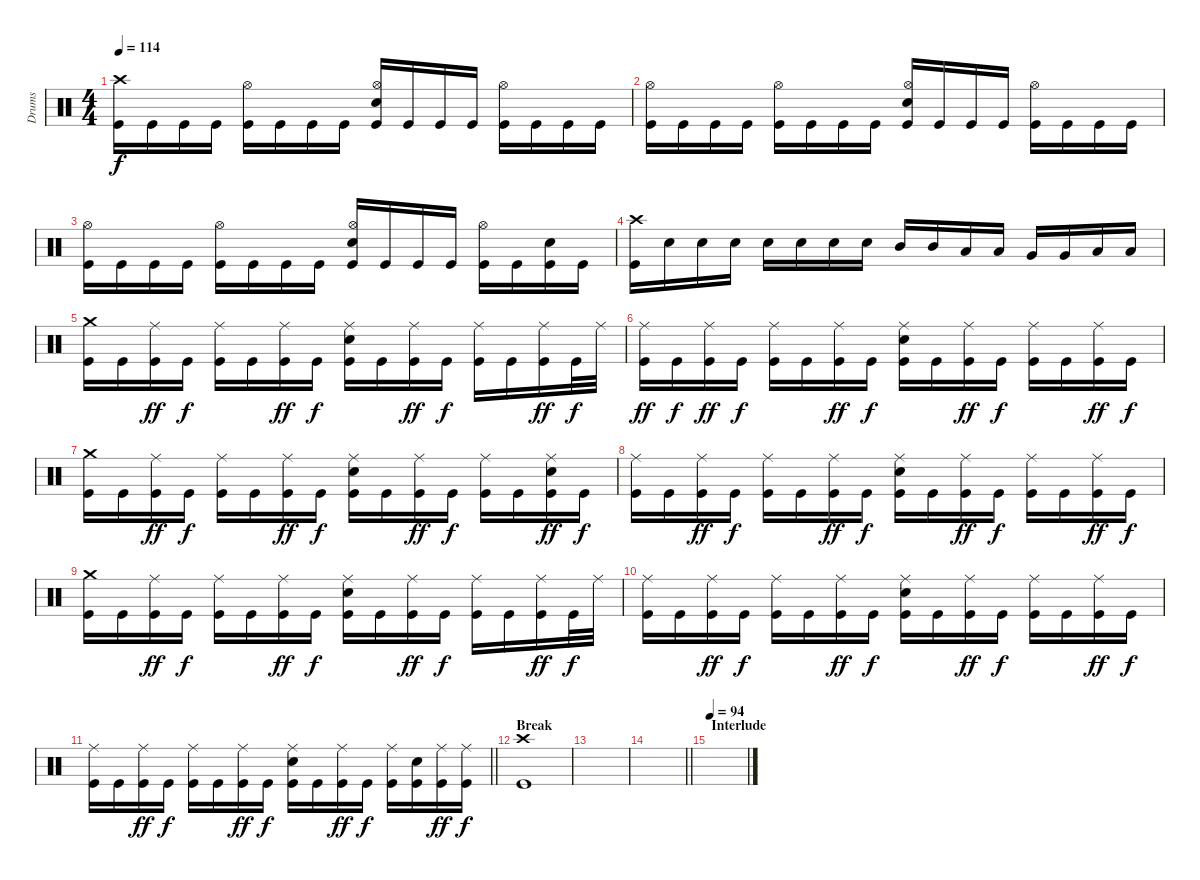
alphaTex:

\track ("Drums" "Drums") {instrument percussion}
\staff {score}
\articulation defaults
\ts (4 4)
\tempo 114
\clef neutral
\ks c
("Crash high (hit)" "Kick (hit)").16{dy f} "Kick (hit)".16 "Kick (hit)".16 "Kick (hit)".16 ("Hi-Hat (open)" "Kick (hit)").16 "Kick (hit)".16 "Kick (hit)".16 "Kick (hit)".16 ("Hi-Hat (open)" "Snare (hit) 2" "Kick (hit)").16 "Kick (hit)".16 "Kick (hit)".16 "Kick (hit)".16 ("Hi-Hat (open)" "Kick (hit)").16 "Kick (hit)".16 "Kick (hit)".16 "Kick (hit)".16 |
("Hi-Hat (open)" "Kick (hit)").16 "Kick (hit)".16 "Kick (hit)".16 "Kick (hit)".16 ("Hi-Hat (open)" "Kick (hit)").16 "Kick (hit)".16 "Kick (hit)".16 "Kick (hit)".16 ("Hi-Hat (open)" "Snare (hit) 2" "Kick (hit)").16 "Kick (hit)".16 "Kick (hit)".16 "Kick (hit)".16 ("Hi-Hat (open)" "Kick (hit)").16 "Kick (hit)".16 "Kick (hit)".16 "Kick (hit)".16 |
("Hi-Hat (open)" "Kick (hit)").16 "Kick (hit)".16 "Kick (hit)".16 "Kick (hit)".16 ("Hi-Hat (open)" "Kick (hit)").16 "Kick (hit)".16 "Kick (hit)".16 "Kick (hit)".16 ("Hi-Hat (open)" "Snare (hit) 2" "Kick (hit)").16 "Kick (hit)".16 "Kick (hit)".16 "Kick (hit)".16 ("Hi-Hat (open)" "Kick (hit)").16 "Kick (hit)".16 ("Snare (hit) 2" "Kick (hit)").16 "Kick (hit)".16 |
("Crash high (hit)" "Kick (hit)").16 "Snare (hit) 2".16 "Snare (hit) 2".16 "Snare (hit) 2".16 "Snare (hit) 2".16 "Snare (hit) 2".16 "Snare (hit) 2".16 "Snare (hit) 2".16 "Mid Tom (hit)".16 "Mid Tom (hit)".16 "Low Tom (hit)".16 "Low Tom (hit)".16 "Very Low Tom (hit)".16 "Very Low Tom (hit)".16 "Low Floor Tom (hit)".16 "Low Floor Tom (hit)".16 |
("Crash medium (hit)" "Kick (hit)").16 "Kick (hit)".16 ("Ride (middle)" "Kick (hit)").16{dy ff} "Kick (hit)".16{dy f} ("Ride (middle)" "Kick (hit)").16 "Kick (hit)".16 ("Ride (middle)" "Kick (hit)").16{dy ff} "Kick (hit)".16{dy f} ("Ride (middle)" "Snare (hit) 2" "Kick (hit)").16 "Kick (hit)".16 ("Ride (middle)" "Kick (hit)").16{dy ff} "Kick (hit)".16{dy f} ("Ride (middle)" "Kick (hit)").16 "Kick (hit)".16 ("Ride (middle)" "Kick (hit)").16{dy ff} "Kick (hit)".32{dy f} "Ride (middle)".32 |
("Ride (middle)" "Kick (hit)").16{dy ff} "Kick (hit)".16{dy f} ("Ride (middle)" "Kick (hit)").16{dy ff} "Kick (hit)".16{dy f} ("Ride (middle)" "Kick (hit)").16 "Kick (hit)".16 ("Ride (middle)" "Kick (hit)").16{dy ff} "Kick (hit)".16{dy f} ("Ride (middle)" "Snare (hit) 2" "Kick (hit)").16 "Kick (hit)".16 ("Ride (middle)" "Kick (hit)").16{dy ff} "Kick (hit)".16{dy f} ("Ride (middle)" "Kick (hit)").16 "Kick (hit)".16 ("Ride (middle)" "Kick (hit)").16{dy ff} "Kick (hit)".16{dy f} |
("Crash medium (hit)" "Kick (hit)").16 "Kick (hit)".16 ("Ride (middle)" "Kick (hit)").16{dy ff} "Kick (hit)".16{dy f} ("Ride (middle)" "Kick (hit)").16 "Kick (hit)".16 ("Ride (middle)" "Kick (hit)").16{dy ff} "Kick (hit)".16{dy f} ("Ride (middle)" "Snare (hit) 2" "Kick (hit)").16 "Kick (hit)".16 ("Ride (middle)" "Kick (hit)").16{dy ff} "Kick (hit)".16{dy f} ("Ride (middle)" "Kick (hit)").16 "Kick (hit)".16 ("Ride (middle)" "Snare (hit) 2" "Kick (hit)").16{dy ff} "Kick (hit)".16{dy f} |
("Ride (middle)" "Kick (hit)").16 "Kick (hit)".16 ("Ride (middle)" "Kick (hit)").16{dy ff} "Kick (hit)".16{dy f} ("Ride (middle)" "Kick (hit)").16 "Kick (hit)".16 ("Ride (middle)" "Kick (hit)").16{dy ff} "Kick (hit)".16{dy f} ("Ride (middle)" "Snare (hit) 2" "Kick (hit)").16 "Kick (hit)".16 ("Ride (middle)" "Kick (hit)").16{dy ff} "Kick (hit)".16{dy f} ("Ride (middle)" "Kick (hit)").16 "Kick (hit)".16 ("Ride (middle)" "Kick (hit)").16{dy ff} "Kick (hit)".16{dy f} |
("Crash medium (hit)" "Kick (hit)").16 "Kick (hit)".16 ("Ride (middle)" "Kick (hit)").16{dy ff} "Kick (hit)".16{dy f} ("Ride (middle)" "Kick (hit)").16 "Kick (hit)".16 ("Ride (middle)" "Kick (hit)").16{dy ff} "Kick (hit)".16{dy f} ("Ride (middle)" "Snare (hit) 2" "Kick (hit)").16 "Kick (hit)".16 ("Ride (middle)" "Kick (hit)").16{dy ff} "Kick (hit)".16{dy f} ("Ride (middle)" "Kick (hit)").16 "Kick (hit)".16 ("Ride (middle)" "Kick (hit)").16{dy ff} "Kick (hit)".32{dy f} "Ride (middle)".32 |
("Ride (middle)" "Kick (hit)").16 "Kick (hit)".16 ("Ride (middle)" "Kick (hit)").16{dy ff} "Kick (hit)".16{dy f} ("Ride (middle)" "Kick (hit)").16 "Kick (hit)".16 ("Ride (middle)" "Kick (hit)").16{dy ff} "Kick (hit)".16{dy f} ("Ride (middle)" "Snare (hit) 2" "Kick (hit)").16 "Kick (hit)".16 ("Ride (middle)" "Kick (hit)").16{dy ff} "Kick (hit)".16{dy f} ("Ride (middle)" "Kick (hit)").16 "Kick (hit)".16 ("Ride (middle)" "Kick (hit)").16{dy ff} "Kick (hit)".16{dy f} |
\barLineRight lightlight
("Ride (middle)" "Kick (hit)").16 "Kick (hit)".16 ("Ride (middle)" "Kick (hit)").16{dy ff} "Kick (hit)".16{dy f} ("Ride (middle)" "Kick (hit)").16 "Kick (hit)".16 ("Ride (middle)" "Kick (hit)").16{dy ff} "Kick (hit)".16{dy f} ("Ride (middle)" "Snare (hit) 2" "Kick (hit)").16 "Kick (hit)".16 ("Ride (middle)" "Kick (hit)").16{dy ff} "Kick (hit)".16{dy f} ("Ride (middle)" "Kick (hit)").16 ("Snare (hit) 2" "Kick (hit)").16 ("Ride (middle)" "Kick (hit)").16{dy ff} ("Ride (middle)" "Kick (hit)").16{dy f} |
\section ("" "Break")
("Crash high (hit)" "Kick (hit)").1 |
|
\barLineRight lightlight
|
\section ("" "Interlude")
\tempo 94
